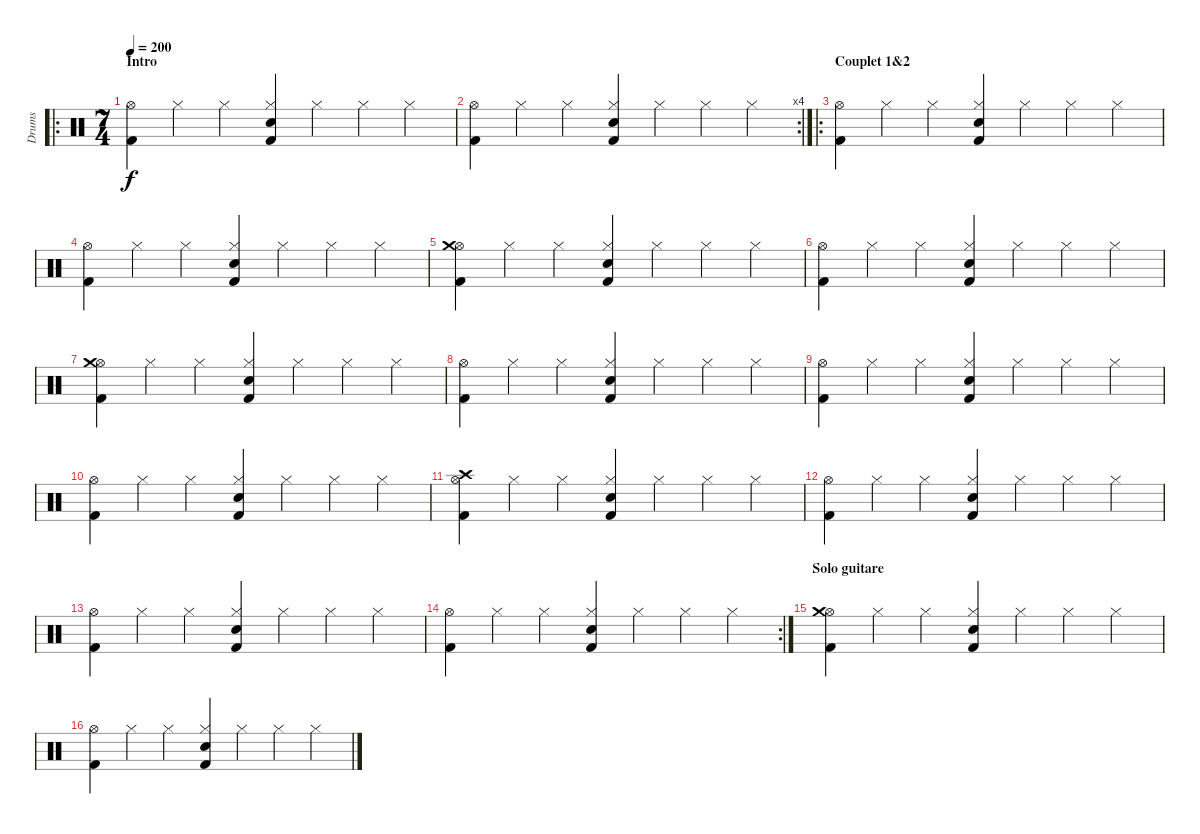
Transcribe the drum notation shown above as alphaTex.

\track ("Drums" "Drums") {instrument percussion}
\staff {score}
\articulation defaults
\ro
\ts (7 4)
\section ("" "Intro")
\tempo 200
\clef neutral
\ks c
("Hi-Hat (open)" "Kick (hit) 2").4{dy f} "Hi-Hat (closed)".4 "Hi-Hat (closed)".4 ("Hi-Hat (closed)" "Snare (hit) 2" "Kick (hit) 2").4 "Hi-Hat (closed)".4 "Hi-Hat (closed)".4 "Hi-Hat (closed)".4 |
\rc 4
("Hi-Hat (open)" "Kick (hit) 2").4 "Hi-Hat (closed)".4 "Hi-Hat (closed)".4 ("Hi-Hat (closed)" "Snare (hit) 2" "Kick (hit) 2").4 "Hi-Hat (closed)".4 "Hi-Hat (closed)".4 "Hi-Hat (closed)".4 |
\ro
\section ("" "Couplet 1&2")
("Hi-Hat (open)" "Kick (hit) 2").4 "Hi-Hat (closed)".4 "Hi-Hat (closed)".4 ("Hi-Hat (closed)" "Snare (hit) 2" "Kick (hit) 2").4 "Hi-Hat (closed)".4 "Hi-Hat (closed)".4 "Hi-Hat (closed)".4 |
("Hi-Hat (open)" "Kick (hit) 2").4 "Hi-Hat (closed)".4 "Hi-Hat (closed)".4 ("Hi-Hat (closed)" "Snare (hit) 2" "Kick (hit) 2").4 "Hi-Hat (closed)".4 "Hi-Hat (closed)".4 "Hi-Hat (closed)".4 |
("Hi-Hat (open)" "Crash medium (hit)" "Kick (hit) 2").4 "Hi-Hat (closed)".4 "Hi-Hat (closed)".4 ("Hi-Hat (closed)" "Snare (hit) 2" "Kick (hit) 2").4 "Hi-Hat (closed)".4 "Hi-Hat (closed)".4 "Hi-Hat (closed)".4 |
("Hi-Hat (open)" "Kick (hit) 2").4 "Hi-Hat (closed)".4 "Hi-Hat (closed)".4 ("Hi-Hat (closed)" "Snare (hit) 2" "Kick (hit) 2").4 "Hi-Hat (closed)".4 "Hi-Hat (closed)".4 "Hi-Hat (closed)".4 |
("Hi-Hat (open)" "Crash medium (hit)" "Kick (hit) 2").4 "Hi-Hat (closed)".4 "Hi-Hat (closed)".4 ("Hi-Hat (closed)" "Snare (hit) 2" "Kick (hit) 2").4 "Hi-Hat (closed)".4 "Hi-Hat (closed)".4 "Hi-Hat (closed)".4 |
("Hi-Hat (open)" "Kick (hit) 2").4 "Hi-Hat (closed)".4 "Hi-Hat (closed)".4 ("Hi-Hat (closed)" "Snare (hit) 2" "Kick (hit) 2").4 "Hi-Hat (closed)".4 "Hi-Hat (closed)".4 "Hi-Hat (closed)".4 |
("Hi-Hat (open)" "Kick (hit) 2").4 "Hi-Hat (closed)".4 "Hi-Hat (closed)".4 ("Hi-Hat (closed)" "Snare (hit) 2" "Kick (hit) 2").4 "Hi-Hat (closed)".4 "Hi-Hat (closed)".4 "Hi-Hat (closed)".4 |
("Hi-Hat (open)" "Kick (hit) 2").4 "Hi-Hat (closed)".4 "Hi-Hat (closed)".4 ("Hi-Hat (closed)" "Snare (hit) 2" "Kick (hit) 2").4 "Hi-Hat (closed)".4 "Hi-Hat (closed)".4 "Hi-Hat (closed)".4 |
("Hi-Hat (open)" "Crash high (hit)" "Kick (hit) 2").4 "Hi-Hat (closed)".4 "Hi-Hat (closed)".4 ("Hi-Hat (closed)" "Snare (hit) 2" "Kick (hit) 2").4 "Hi-Hat (closed)".4 "Hi-Hat (closed)".4 "Hi-Hat (closed)".4 |
("Hi-Hat (open)" "Kick (hit) 2").4 "Hi-Hat (closed)".4 "Hi-Hat (closed)".4 ("Hi-Hat (closed)" "Snare (hit) 2" "Kick (hit) 2").4 "Hi-Hat (closed)".4 "Hi-Hat (closed)".4 "Hi-Hat (closed)".4 |
("Hi-Hat (open)" "Kick (hit) 2").4 "Hi-Hat (closed)".4 "Hi-Hat (closed)".4 ("Hi-Hat (closed)" "Snare (hit) 2" "Kick (hit) 2").4 "Hi-Hat (closed)".4 "Hi-Hat (closed)".4 "Hi-Hat (closed)".4 |
\rc 2
("Hi-Hat (open)" "Kick (hit) 2").4 "Hi-Hat (closed)".4 "Hi-Hat (closed)".4 ("Hi-Hat (closed)" "Snare (hit) 2" "Kick (hit) 2").4 "Hi-Hat (closed)".4 "Hi-Hat (closed)".4 "Hi-Hat (closed)".4 |
\section ("" "Solo guitare")
("Hi-Hat (open)" "Crash medium (hit)" "Kick (hit) 2").4 "Hi-Hat (closed)".4 "Hi-Hat (closed)".4 ("Hi-Hat (closed)" "Snare (hit) 2" "Kick (hit) 2").4 "Hi-Hat (closed)".4 "Hi-Hat (closed)".4 "Hi-Hat (closed)".4 |
("Hi-Hat (open)" "Kick (hit) 2").4 "Hi-Hat (closed)".4 "Hi-Hat (closed)".4 ("Hi-Hat (closed)" "Snare (hit) 2" "Kick (hit) 2").4 "Hi-Hat (closed)".4 "Hi-Hat (closed)".4 "Hi-Hat (closed)".4
